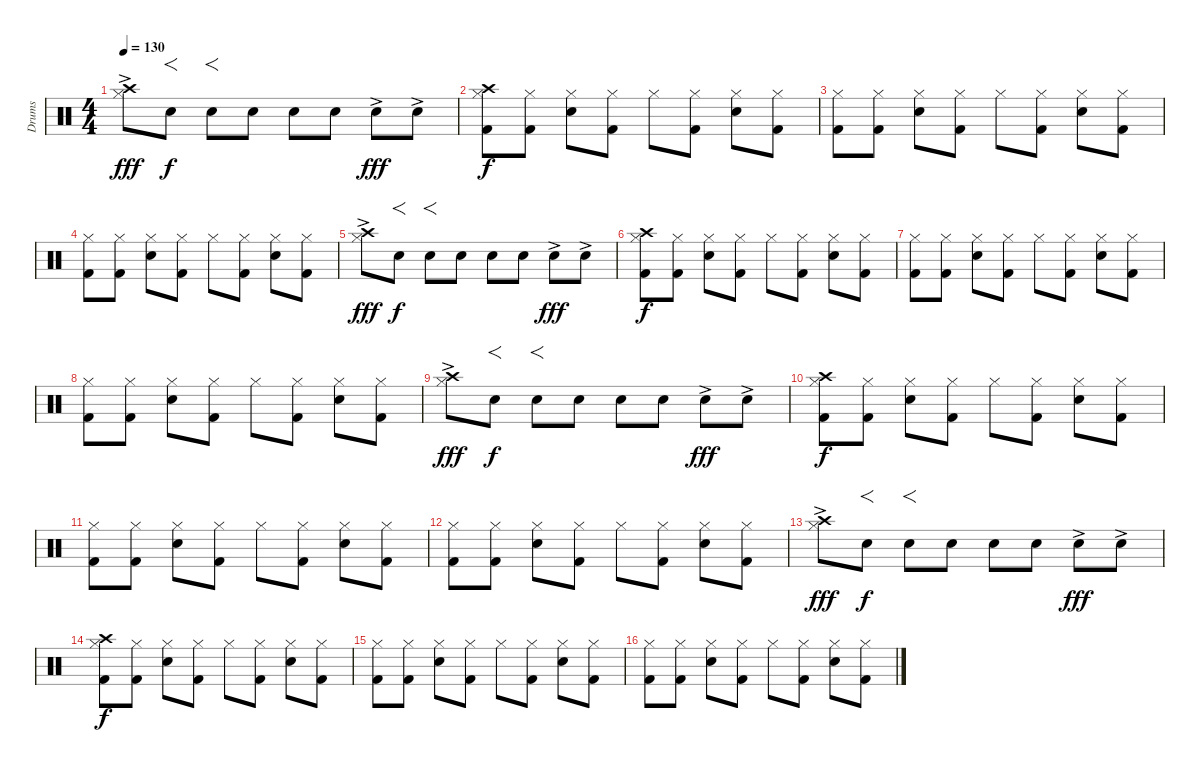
\track ("Drums" "Drums") {instrument percussion}
\staff {score}
\articulation defaults
\ts (4 4)
\tempo 130
\clef neutral
\ks c
("Crash high (hit)"{ac} "Hi-Hat (closed)").8{dy fff} "Snare (hit) 2".8{f dy f} "Snare (hit) 2".8{f} "Snare (hit) 2".8 "Snare (hit) 2".8 "Snare (hit) 2".8 "Snare (hit) 2"{ac}.8{dy fff} "Snare (hit) 2"{ac}.8 |
("Crash high (hit)" "Hi-Hat (closed)" "Kick (hit) 2").8{dy f} ("Hi-Hat (closed)" "Kick (hit) 2").8 ("Hi-Hat (closed)" "Snare (hit) 2").8 ("Hi-Hat (closed)" "Kick (hit) 2").8 "Hi-Hat (closed)".8 ("Hi-Hat (closed)" "Kick (hit) 2").8 ("Hi-Hat (closed)" "Snare (hit) 2").8 ("Hi-Hat (closed)" "Kick (hit) 2").8 |
("Hi-Hat (closed)" "Kick (hit) 2").8 ("Hi-Hat (closed)" "Kick (hit) 2").8 ("Hi-Hat (closed)" "Snare (hit) 2").8 ("Hi-Hat (closed)" "Kick (hit) 2").8 "Hi-Hat (closed)".8 ("Hi-Hat (closed)" "Kick (hit) 2").8 ("Hi-Hat (closed)" "Snare (hit) 2").8 ("Hi-Hat (closed)" "Kick (hit) 2").8 |
("Hi-Hat (closed)" "Kick (hit) 2").8 ("Hi-Hat (closed)" "Kick (hit) 2").8 ("Hi-Hat (closed)" "Snare (hit) 2").8 ("Hi-Hat (closed)" "Kick (hit) 2").8 "Hi-Hat (closed)".8 ("Hi-Hat (closed)" "Kick (hit) 2").8 ("Hi-Hat (closed)" "Snare (hit) 2").8 ("Hi-Hat (closed)" "Kick (hit) 2").8 |
("Crash high (hit)"{ac} "Hi-Hat (closed)").8{dy fff} "Snare (hit) 2".8{f dy f} "Snare (hit) 2".8{f} "Snare (hit) 2".8 "Snare (hit) 2".8 "Snare (hit) 2".8 "Snare (hit) 2"{ac}.8{dy fff} "Snare (hit) 2"{ac}.8 |
("Crash high (hit)" "Hi-Hat (closed)" "Kick (hit) 2").8{dy f} ("Hi-Hat (closed)" "Kick (hit) 2").8 ("Hi-Hat (closed)" "Snare (hit) 2").8 ("Hi-Hat (closed)" "Kick (hit) 2").8 "Hi-Hat (closed)".8 ("Hi-Hat (closed)" "Kick (hit) 2").8 ("Hi-Hat (closed)" "Snare (hit) 2").8 ("Hi-Hat (closed)" "Kick (hit) 2").8 |
("Hi-Hat (closed)" "Kick (hit) 2").8 ("Hi-Hat (closed)" "Kick (hit) 2").8 ("Hi-Hat (closed)" "Snare (hit) 2").8 ("Hi-Hat (closed)" "Kick (hit) 2").8 "Hi-Hat (closed)".8 ("Hi-Hat (closed)" "Kick (hit) 2").8 ("Hi-Hat (closed)" "Snare (hit) 2").8 ("Hi-Hat (closed)" "Kick (hit) 2").8 |
("Hi-Hat (closed)" "Kick (hit) 2").8 ("Hi-Hat (closed)" "Kick (hit) 2").8 ("Hi-Hat (closed)" "Snare (hit) 2").8 ("Hi-Hat (closed)" "Kick (hit) 2").8 "Hi-Hat (closed)".8 ("Hi-Hat (closed)" "Kick (hit) 2").8 ("Hi-Hat (closed)" "Snare (hit) 2").8 ("Hi-Hat (closed)" "Kick (hit) 2").8 |
("Crash high (hit)"{ac} "Hi-Hat (closed)").8{dy fff} "Snare (hit) 2".8{f dy f} "Snare (hit) 2".8{f} "Snare (hit) 2".8 "Snare (hit) 2".8 "Snare (hit) 2".8 "Snare (hit) 2"{ac}.8{dy fff} "Snare (hit) 2"{ac}.8 |
("Crash high (hit)" "Hi-Hat (closed)" "Kick (hit) 2").8{dy f} ("Hi-Hat (closed)" "Kick (hit) 2").8 ("Hi-Hat (closed)" "Snare (hit) 2").8 ("Hi-Hat (closed)" "Kick (hit) 2").8 "Hi-Hat (closed)".8 ("Hi-Hat (closed)" "Kick (hit) 2").8 ("Hi-Hat (closed)" "Snare (hit) 2").8 ("Hi-Hat (closed)" "Kick (hit) 2").8 |
("Hi-Hat (closed)" "Kick (hit) 2").8 ("Hi-Hat (closed)" "Kick (hit) 2").8 ("Hi-Hat (closed)" "Snare (hit) 2").8 ("Hi-Hat (closed)" "Kick (hit) 2").8 "Hi-Hat (closed)".8 ("Hi-Hat (closed)" "Kick (hit) 2").8 ("Hi-Hat (closed)" "Snare (hit) 2").8 ("Hi-Hat (closed)" "Kick (hit) 2").8 |
("Hi-Hat (closed)" "Kick (hit) 2").8 ("Hi-Hat (closed)" "Kick (hit) 2").8 ("Hi-Hat (closed)" "Snare (hit) 2").8 ("Hi-Hat (closed)" "Kick (hit) 2").8 "Hi-Hat (closed)".8 ("Hi-Hat (closed)" "Kick (hit) 2").8 ("Hi-Hat (closed)" "Snare (hit) 2").8 ("Hi-Hat (closed)" "Kick (hit) 2").8 |
("Crash high (hit)"{ac} "Hi-Hat (closed)").8{dy fff} "Snare (hit) 2".8{f dy f} "Snare (hit) 2".8{f} "Snare (hit) 2".8 "Snare (hit) 2".8 "Snare (hit) 2".8 "Snare (hit) 2"{ac}.8{dy fff} "Snare (hit) 2"{ac}.8 |
("Crash high (hit)" "Hi-Hat (closed)" "Kick (hit) 2").8{dy f} ("Hi-Hat (closed)" "Kick (hit) 2").8 ("Hi-Hat (closed)" "Snare (hit) 2").8 ("Hi-Hat (closed)" "Kick (hit) 2").8 "Hi-Hat (closed)".8 ("Hi-Hat (closed)" "Kick (hit) 2").8 ("Hi-Hat (closed)" "Snare (hit) 2").8 ("Hi-Hat (closed)" "Kick (hit) 2").8 |
("Hi-Hat (closed)" "Kick (hit) 2").8 ("Hi-Hat (closed)" "Kick (hit) 2").8 ("Hi-Hat (closed)" "Snare (hit) 2").8 ("Hi-Hat (closed)" "Kick (hit) 2").8 "Hi-Hat (closed)".8 ("Hi-Hat (closed)" "Kick (hit) 2").8 ("Hi-Hat (closed)" "Snare (hit) 2").8 ("Hi-Hat (closed)" "Kick (hit) 2").8 |
("Hi-Hat (closed)" "Kick (hit) 2").8 ("Hi-Hat (closed)" "Kick (hit) 2").8 ("Hi-Hat (closed)" "Snare (hit) 2").8 ("Hi-Hat (closed)" "Kick (hit) 2").8 "Hi-Hat (closed)".8 ("Hi-Hat (closed)" "Kick (hit) 2").8 ("Hi-Hat (closed)" "Snare (hit) 2").8 ("Hi-Hat (closed)" "Kick (hit) 2").8
